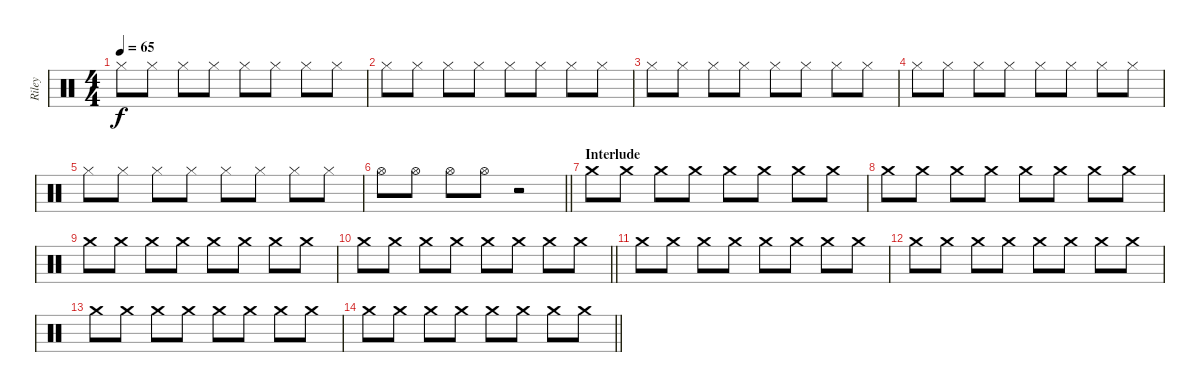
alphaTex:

\track ("Riley" "Riley") {instrument percussion}
\staff {score}
\articulation defaults
\ts (4 4)
\tempo 65
\clef neutral
\ks c "Hi-Hat (closed)".8{dy f} "Hi-Hat (closed)".8 "Hi-Hat (closed)".8 "Hi-Hat (closed)".8 "Hi-Hat (closed)".8 "Hi-Hat (closed)".8 "Hi-Hat (closed)".8 "Hi-Hat (closed)".8
|
"Hi-Hat (closed)".8 "Hi-Hat (closed)".8 "Hi-Hat (closed)".8 "Hi-Hat (closed)".8 "Hi-Hat (closed)".8 "Hi-Hat (closed)".8 "Hi-Hat (closed)".8 "Hi-Hat (closed)".8 |
"Hi-Hat (closed)".8 "Hi-Hat (closed)".8 "Hi-Hat (closed)".8 "Hi-Hat (closed)".8 "Hi-Hat (closed)".8 "Hi-Hat (closed)".8 "Hi-Hat (closed)".8 "Hi-Hat (closed)".8 |
"Hi-Hat (closed)".8 "Hi-Hat (closed)".8 "Hi-Hat (closed)".8 "Hi-Hat (closed)".8 "Hi-Hat (closed)".8 "Hi-Hat (closed)".8 "Hi-Hat (closed)".8 "Hi-Hat (closed)".8 |
"Hi-Hat (closed)".8 "Hi-Hat (closed)".8 "Hi-Hat (closed)".8 "Hi-Hat (closed)".8 "Hi-Hat (closed)".8 "Hi-Hat (closed)".8 "Hi-Hat (closed)".8 "Hi-Hat (closed)".8 |
\barLineRight lightlight "Hi-Hat (open)".8 "Hi-Hat (open)".8 "Hi-Hat (open)".8 "Hi-Hat (open)".8
r.2 |
\section ("" "Interlude")
"Crash medium (hit)".8 "Crash medium (hit)".8 "Crash medium (hit)".8 "Crash medium (hit)".8 "Crash medium (hit)".8 "Crash medium (hit)".8 "Crash medium (hit)".8 "Crash medium (hit)".8 |
"Crash medium (hit)".8 "Crash medium (hit)".8 "Crash medium (hit)".8 "Crash medium (hit)".8 "Crash medium (hit)".8 "Crash medium (hit)".8 "Crash medium (hit)".8 "Crash medium (hit)".8 |
"Crash medium (hit)".8 "Crash medium (hit)".8 "Crash medium (hit)".8 "Crash medium (hit)".8 "Crash medium (hit)".8 "Crash medium (hit)".8 "Crash medium (hit)".8 "Crash medium (hit)".8 |
\barLineRight lightlight "Crash medium (hit)".8 "Crash medium (hit)".8 "Crash medium (hit)".8 "Crash medium (hit)".8 "Crash medium (hit)".8 "Crash medium (hit)".8 "Crash medium (hit)".8 "Crash medium (hit)".8
|
\section ("" "")
"Crash medium (hit)".8 "Crash medium (hit)".8 "Crash medium (hit)".8 "Crash medium (hit)".8 "Crash medium (hit)".8 "Crash medium (hit)".8 "Crash medium (hit)".8 "Crash medium (hit)".8 |
"Crash medium (hit)".8 "Crash medium (hit)".8 "Crash medium (hit)".8 "Crash medium (hit)".8 "Crash medium (hit)".8 "Crash medium (hit)".8 "Crash medium (hit)".8 "Crash medium (hit)".8 |
"Crash medium (hit)".8 "Crash medium (hit)".8 "Crash medium (hit)".8 "Crash medium (hit)".8 "Crash medium (hit)".8 "Crash medium (hit)".8 "Crash medium (hit)".8 "Crash medium (hit)".8 |
\barLineRight lightlight "Crash medium (hit)".8 "Crash medium (hit)".8 "Crash medium (hit)".8 "Crash medium (hit)".8 "Crash medium (hit)".8 "Crash medium (hit)".8 "Crash medium (hit)".8 "Crash medium (hit)".8
